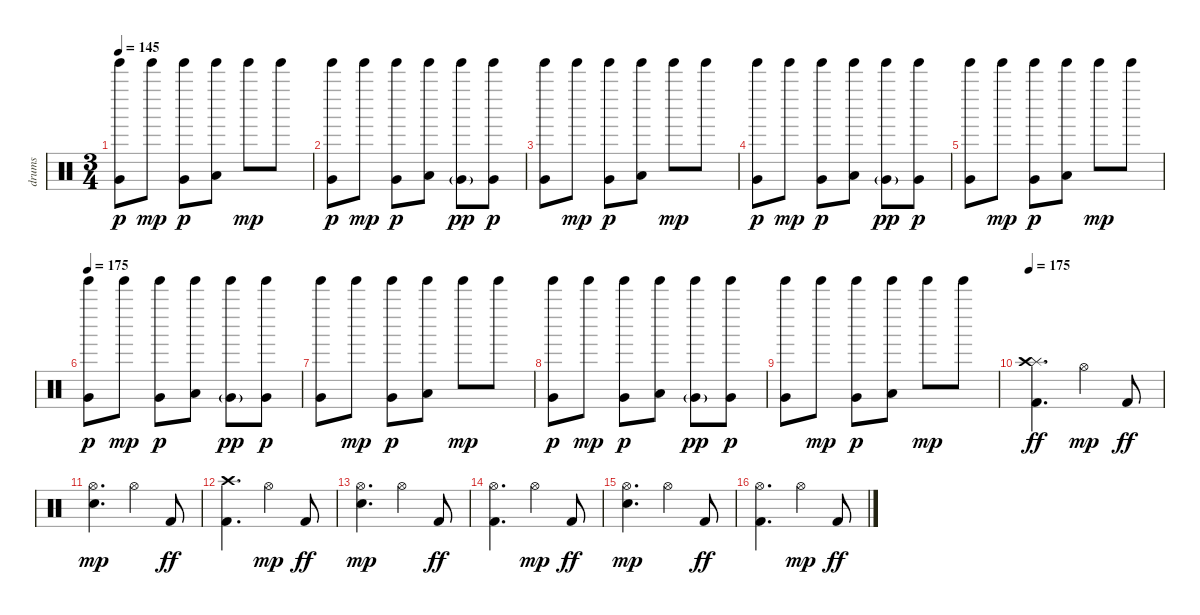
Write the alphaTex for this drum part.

\track ("drums" "drums") {instrument percussion}
\staff {score}
\articulation defaults
\ts (3 4)
\tempo 145
\clef neutral
\ks c
("Tinkle Bell (hit)" "Very Low Tom (hit)").8{dy p} "Tinkle Bell (hit)".8{dy mp} ("Tinkle Bell (hit)" "Very Low Tom (hit)").8{dy p} ("Tinkle Bell (hit)" "Low Floor Tom (hit)").8 "Tinkle Bell (hit)".8{dy mp} "Tinkle Bell (hit)".8 |
("Tinkle Bell (hit)" "Very Low Tom (hit)").8{dy p} "Tinkle Bell (hit)".8{dy mp} ("Tinkle Bell (hit)" "Very Low Tom (hit)").8{dy p} ("Tinkle Bell (hit)" "Low Floor Tom (hit)").8 ("Tinkle Bell (hit)" "Very Low Tom (hit)"{g}).8{dy pp} ("Tinkle Bell (hit)" "Very Low Tom (hit)").8{dy p} |
("Tinkle Bell (hit)" "Very Low Tom (hit)").8 "Tinkle Bell (hit)".8{dy mp} ("Tinkle Bell (hit)" "Very Low Tom (hit)").8{dy p} ("Tinkle Bell (hit)" "Low Floor Tom (hit)").8 "Tinkle Bell (hit)".8{dy mp} "Tinkle Bell (hit)".8 |
("Tinkle Bell (hit)" "Very Low Tom (hit)").8{dy p} "Tinkle Bell (hit)".8{dy mp} ("Tinkle Bell (hit)" "Very Low Tom (hit)").8{dy p} ("Tinkle Bell (hit)" "Low Floor Tom (hit)").8 ("Tinkle Bell (hit)" "Very Low Tom (hit)"{g}).8{dy pp} ("Tinkle Bell (hit)" "Very Low Tom (hit)").8{dy p} |
("Tinkle Bell (hit)" "Very Low Tom (hit)").8 "Tinkle Bell (hit)".8{dy mp} ("Tinkle Bell (hit)" "Very Low Tom (hit)").8{dy p} ("Tinkle Bell (hit)" "Low Floor Tom (hit)").8 "Tinkle Bell (hit)".8{dy mp} "Tinkle Bell (hit)".8 |
\tempo 175
("Tinkle Bell (hit)" "Very Low Tom (hit)").8{dy p} "Tinkle Bell (hit)".8{dy mp} ("Tinkle Bell (hit)" "Very Low Tom (hit)").8{dy p} ("Tinkle Bell (hit)" "Low Floor Tom (hit)").8 ("Tinkle Bell (hit)" "Very Low Tom (hit)"{g}).8{dy pp} ("Tinkle Bell (hit)" "Very Low Tom (hit)").8{dy p} |
("Tinkle Bell (hit)" "Very Low Tom (hit)").8 "Tinkle Bell (hit)".8{dy mp} ("Tinkle Bell (hit)" "Very Low Tom (hit)").8{dy p} ("Tinkle Bell (hit)" "Low Floor Tom (hit)").8 "Tinkle Bell (hit)".8{dy mp} "Tinkle Bell (hit)".8 |
("Tinkle Bell (hit)" "Very Low Tom (hit)").8{dy p} "Tinkle Bell (hit)".8{dy mp} ("Tinkle Bell (hit)" "Very Low Tom (hit)").8{dy p} ("Tinkle Bell (hit)" "Low Floor Tom (hit)").8 ("Tinkle Bell (hit)" "Very Low Tom (hit)"{g}).8{dy pp} ("Tinkle Bell (hit)" "Very Low Tom (hit)").8{dy p} |
("Tinkle Bell (hit)" "Very Low Tom (hit)").8 "Tinkle Bell (hit)".8{dy mp} ("Tinkle Bell (hit)" "Very Low Tom (hit)").8{dy p} ("Tinkle Bell (hit)" "Low Floor Tom (hit)").8 "Tinkle Bell (hit)".8{dy mp} "Tinkle Bell (hit)".8 |
\tempo 175
("Splash (hit)" "Crash high (hit)" "Kick (hit) 2").4{d dy ff} "Hi-Hat (open)".4{dy mp} "Kick (hit) 2".8{dy ff} |
("Hi-Hat (open)" "Snare (hit) 2").4{d dy mp} "Hi-Hat (open)".4 "Kick (hit) 2".8{dy ff} |
("Crash high (hit)" "Kick (hit) 2").4{d} "Hi-Hat (open)".4{dy mp} "Kick (hit) 2".8{dy ff} |
("Hi-Hat (open)" "Snare (hit) 2").4{d dy mp} "Hi-Hat (open)".4 "Kick (hit) 2".8{dy ff} |
("Hi-Hat (open)" "Kick (hit) 2").4{d} "Hi-Hat (open)".4{dy mp} "Kick (hit) 2".8{dy ff} |
("Hi-Hat (open)" "Snare (hit) 2").4{d dy mp} "Hi-Hat (open)".4 "Kick (hit) 2".8{dy ff} |
("Hi-Hat (open)" "Kick (hit) 2").4{d} "Hi-Hat (open)".4{dy mp} "Kick (hit) 2".8{dy ff}
